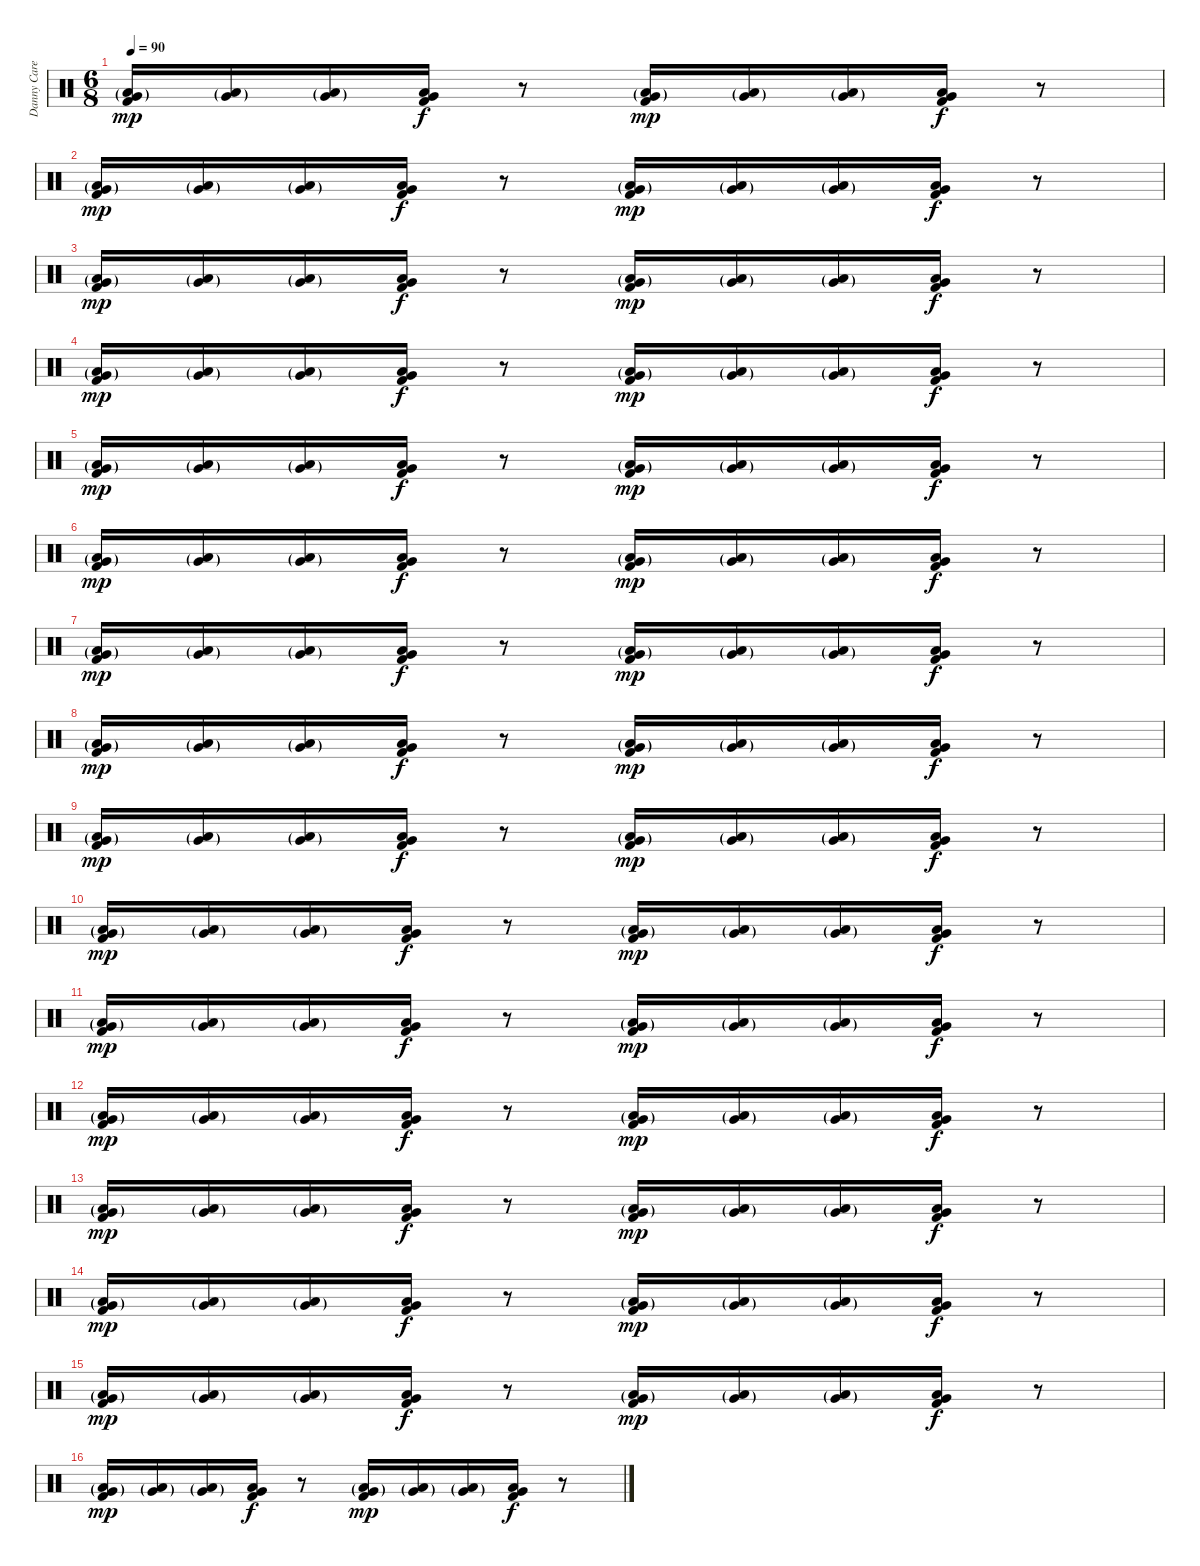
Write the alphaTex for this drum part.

\track ("Danny Carey" "Danny Care") {instrument percussion}
\staff {score}
\articulation defaults
\ts (6 8)
\tempo 90
\clef neutral
\ks c
("Very Low Tom (hit)"{g} "Low Floor Tom (hit)"{g} "Kick (hit) 2").16{dy mp volume 7} ("Very Low Tom (hit)"{g} "Low Floor Tom (hit)"{g}).16{volume 10} ("Very Low Tom (hit)"{g} "Low Floor Tom (hit)"{g}).16 ("Very Low Tom (hit)" "Low Floor Tom (hit)" "Kick (hit) 2").16{dy f} r.8 ("Very Low Tom (hit)"{g} "Low Floor Tom (hit)"{g} "Kick (hit) 2").16{dy mp} ("Very Low Tom (hit)"{g} "Low Floor Tom (hit)"{g}).16 ("Very Low Tom (hit)"{g} "Low Floor Tom (hit)"{g}).16 ("Very Low Tom (hit)" "Low Floor Tom (hit)" "Kick (hit) 2").16{dy f} r.8 |
("Very Low Tom (hit)"{g} "Low Floor Tom (hit)"{g} "Kick (hit) 2").16{dy mp} ("Very Low Tom (hit)"{g} "Low Floor Tom (hit)"{g}).16 ("Very Low Tom (hit)"{g} "Low Floor Tom (hit)"{g}).16 ("Very Low Tom (hit)" "Low Floor Tom (hit)" "Kick (hit) 2").16{dy f} r.8 ("Very Low Tom (hit)"{g} "Low Floor Tom (hit)"{g} "Kick (hit) 2").16{dy mp} ("Very Low Tom (hit)"{g} "Low Floor Tom (hit)"{g}).16 ("Very Low Tom (hit)"{g} "Low Floor Tom (hit)"{g}).16 ("Very Low Tom (hit)" "Low Floor Tom (hit)" "Kick (hit) 2").16{dy f} r.8 |
("Very Low Tom (hit)"{g} "Low Floor Tom (hit)"{g} "Kick (hit) 2").16{dy mp} ("Very Low Tom (hit)"{g} "Low Floor Tom (hit)"{g}).16 ("Very Low Tom (hit)"{g} "Low Floor Tom (hit)"{g}).16 ("Very Low Tom (hit)" "Low Floor Tom (hit)" "Kick (hit) 2").16{dy f} r.8 ("Very Low Tom (hit)"{g} "Low Floor Tom (hit)"{g} "Kick (hit) 2").16{dy mp} ("Very Low Tom (hit)"{g} "Low Floor Tom (hit)"{g}).16 ("Very Low Tom (hit)"{g} "Low Floor Tom (hit)"{g}).16 ("Very Low Tom (hit)" "Low Floor Tom (hit)" "Kick (hit) 2").16{dy f} r.8 |
("Very Low Tom (hit)"{g} "Low Floor Tom (hit)"{g} "Kick (hit) 2").16{dy mp} ("Very Low Tom (hit)"{g} "Low Floor Tom (hit)"{g}).16 ("Very Low Tom (hit)"{g} "Low Floor Tom (hit)"{g}).16 ("Very Low Tom (hit)" "Low Floor Tom (hit)" "Kick (hit) 2").16{dy f} r.8 ("Very Low Tom (hit)"{g} "Low Floor Tom (hit)"{g} "Kick (hit) 2").16{dy mp} ("Very Low Tom (hit)"{g} "Low Floor Tom (hit)"{g}).16 ("Very Low Tom (hit)"{g} "Low Floor Tom (hit)"{g}).16 ("Very Low Tom (hit)" "Low Floor Tom (hit)" "Kick (hit) 2").16{dy f} r.8 |
("Very Low Tom (hit)"{g} "Low Floor Tom (hit)"{g} "Kick (hit) 2").16{dy mp volume 10} ("Very Low Tom (hit)"{g} "Low Floor Tom (hit)"{g}).16{volume 10} ("Very Low Tom (hit)"{g} "Low Floor Tom (hit)"{g}).16 ("Very Low Tom (hit)" "Low Floor Tom (hit)" "Kick (hit) 2").16{dy f} r.8 ("Very Low Tom (hit)"{g} "Low Floor Tom (hit)"{g} "Kick (hit) 2").16{dy mp} ("Very Low Tom (hit)"{g} "Low Floor Tom (hit)"{g}).16 ("Very Low Tom (hit)"{g} "Low Floor Tom (hit)"{g}).16 ("Very Low Tom (hit)" "Low Floor Tom (hit)" "Kick (hit) 2").16{dy f} r.8 |
("Very Low Tom (hit)"{g} "Low Floor Tom (hit)"{g} "Kick (hit) 2").16{dy mp} ("Very Low Tom (hit)"{g} "Low Floor Tom (hit)"{g}).16 ("Very Low Tom (hit)"{g} "Low Floor Tom (hit)"{g}).16 ("Very Low Tom (hit)" "Low Floor Tom (hit)" "Kick (hit) 2").16{dy f} r.8 ("Very Low Tom (hit)"{g} "Low Floor Tom (hit)"{g} "Kick (hit) 2").16{dy mp} ("Very Low Tom (hit)"{g} "Low Floor Tom (hit)"{g}).16 ("Very Low Tom (hit)"{g} "Low Floor Tom (hit)"{g}).16 ("Very Low Tom (hit)" "Low Floor Tom (hit)" "Kick (hit) 2").16{dy f} r.8 |
("Very Low Tom (hit)"{g} "Low Floor Tom (hit)"{g} "Kick (hit) 2").16{dy mp} ("Very Low Tom (hit)"{g} "Low Floor Tom (hit)"{g}).16 ("Very Low Tom (hit)"{g} "Low Floor Tom (hit)"{g}).16 ("Very Low Tom (hit)" "Low Floor Tom (hit)" "Kick (hit) 2").16{dy f} r.8 ("Very Low Tom (hit)"{g} "Low Floor Tom (hit)"{g} "Kick (hit) 2").16{dy mp} ("Very Low Tom (hit)"{g} "Low Floor Tom (hit)"{g}).16 ("Very Low Tom (hit)"{g} "Low Floor Tom (hit)"{g}).16 ("Very Low Tom (hit)" "Low Floor Tom (hit)" "Kick (hit) 2").16{dy f} r.8 |
("Very Low Tom (hit)"{g} "Low Floor Tom (hit)"{g} "Kick (hit) 2").16{dy mp} ("Very Low Tom (hit)"{g} "Low Floor Tom (hit)"{g}).16 ("Very Low Tom (hit)"{g} "Low Floor Tom (hit)"{g}).16 ("Very Low Tom (hit)" "Low Floor Tom (hit)" "Kick (hit) 2").16{dy f} r.8 ("Very Low Tom (hit)"{g} "Low Floor Tom (hit)"{g} "Kick (hit) 2").16{dy mp} ("Very Low Tom (hit)"{g} "Low Floor Tom (hit)"{g}).16 ("Very Low Tom (hit)"{g} "Low Floor Tom (hit)"{g}).16 ("Very Low Tom (hit)" "Low Floor Tom (hit)" "Kick (hit) 2").16{dy f} r.8 |
("Very Low Tom (hit)"{g} "Low Floor Tom (hit)"{g} "Kick (hit) 2").16{dy mp} ("Very Low Tom (hit)"{g} "Low Floor Tom (hit)"{g}).16 ("Very Low Tom (hit)"{g} "Low Floor Tom (hit)"{g}).16 ("Very Low Tom (hit)" "Low Floor Tom (hit)" "Kick (hit) 2").16{dy f} r.8 ("Very Low Tom (hit)"{g} "Low Floor Tom (hit)"{g} "Kick (hit) 2").16{dy mp} ("Very Low Tom (hit)"{g} "Low Floor Tom (hit)"{g}).16 ("Very Low Tom (hit)"{g} "Low Floor Tom (hit)"{g}).16 ("Very Low Tom (hit)" "Low Floor Tom (hit)" "Kick (hit) 2").16{dy f} r.8 |
("Very Low Tom (hit)"{g} "Low Floor Tom (hit)"{g} "Kick (hit) 2").16{dy mp} ("Very Low Tom (hit)"{g} "Low Floor Tom (hit)"{g}).16 ("Very Low Tom (hit)"{g} "Low Floor Tom (hit)"{g}).16 ("Very Low Tom (hit)" "Low Floor Tom (hit)" "Kick (hit) 2").16{dy f} r.8 ("Very Low Tom (hit)"{g} "Low Floor Tom (hit)"{g} "Kick (hit) 2").16{dy mp} ("Very Low Tom (hit)"{g} "Low Floor Tom (hit)"{g}).16 ("Very Low Tom (hit)"{g} "Low Floor Tom (hit)"{g}).16 ("Very Low Tom (hit)" "Low Floor Tom (hit)" "Kick (hit) 2").16{dy f} r.8 |
("Very Low Tom (hit)"{g} "Low Floor Tom (hit)"{g} "Kick (hit) 2").16{dy mp} ("Very Low Tom (hit)"{g} "Low Floor Tom (hit)"{g}).16 ("Very Low Tom (hit)"{g} "Low Floor Tom (hit)"{g}).16 ("Very Low Tom (hit)" "Low Floor Tom (hit)" "Kick (hit) 2").16{dy f} r.8 ("Very Low Tom (hit)"{g} "Low Floor Tom (hit)"{g} "Kick (hit) 2").16{dy mp} ("Very Low Tom (hit)"{g} "Low Floor Tom (hit)"{g}).16 ("Very Low Tom (hit)"{g} "Low Floor Tom (hit)"{g}).16 ("Very Low Tom (hit)" "Low Floor Tom (hit)" "Kick (hit) 2").16{dy f} r.8 |
("Very Low Tom (hit)"{g} "Low Floor Tom (hit)"{g} "Kick (hit) 2").16{dy mp} ("Very Low Tom (hit)"{g} "Low Floor Tom (hit)"{g}).16 ("Very Low Tom (hit)"{g} "Low Floor Tom (hit)"{g}).16 ("Very Low Tom (hit)" "Low Floor Tom (hit)" "Kick (hit) 2").16{dy f} r.8 ("Very Low Tom (hit)"{g} "Low Floor Tom (hit)"{g} "Kick (hit) 2").16{dy mp} ("Very Low Tom (hit)"{g} "Low Floor Tom (hit)"{g}).16 ("Very Low Tom (hit)"{g} "Low Floor Tom (hit)"{g}).16 ("Very Low Tom (hit)" "Low Floor Tom (hit)" "Kick (hit) 2").16{dy f} r.8 |
("Very Low Tom (hit)"{g} "Low Floor Tom (hit)"{g} "Kick (hit) 2").16{dy mp volume 10} ("Very Low Tom (hit)"{g} "Low Floor Tom (hit)"{g}).16{volume 12} ("Very Low Tom (hit)"{g} "Low Floor Tom (hit)"{g}).16 ("Very Low Tom (hit)" "Low Floor Tom (hit)" "Kick (hit) 2").16{dy f} r.8 ("Very Low Tom (hit)"{g} "Low Floor Tom (hit)"{g} "Kick (hit) 2").16{dy mp} ("Very Low Tom (hit)"{g} "Low Floor Tom (hit)"{g}).16 ("Very Low Tom (hit)"{g} "Low Floor Tom (hit)"{g}).16 ("Very Low Tom (hit)" "Low Floor Tom (hit)" "Kick (hit) 2").16{dy f} r.8 |
("Very Low Tom (hit)"{g} "Low Floor Tom (hit)"{g} "Kick (hit) 2").16{dy mp} ("Very Low Tom (hit)"{g} "Low Floor Tom (hit)"{g}).16 ("Very Low Tom (hit)"{g} "Low Floor Tom (hit)"{g}).16 ("Very Low Tom (hit)" "Low Floor Tom (hit)" "Kick (hit) 2").16{dy f} r.8 ("Very Low Tom (hit)"{g} "Low Floor Tom (hit)"{g} "Kick (hit) 2").16{dy mp} ("Very Low Tom (hit)"{g} "Low Floor Tom (hit)"{g}).16 ("Very Low Tom (hit)"{g} "Low Floor Tom (hit)"{g}).16 ("Very Low Tom (hit)" "Low Floor Tom (hit)" "Kick (hit) 2").16{dy f} r.8 |
("Very Low Tom (hit)"{g} "Low Floor Tom (hit)"{g} "Kick (hit) 2").16{dy mp} ("Very Low Tom (hit)"{g} "Low Floor Tom (hit)"{g}).16 ("Very Low Tom (hit)"{g} "Low Floor Tom (hit)"{g}).16 ("Very Low Tom (hit)" "Low Floor Tom (hit)" "Kick (hit) 2").16{dy f} r.8 ("Very Low Tom (hit)"{g} "Low Floor Tom (hit)"{g} "Kick (hit) 2").16{dy mp} ("Very Low Tom (hit)"{g} "Low Floor Tom (hit)"{g}).16 ("Very Low Tom (hit)"{g} "Low Floor Tom (hit)"{g}).16 ("Very Low Tom (hit)" "Low Floor Tom (hit)" "Kick (hit) 2").16{dy f} r.8 |
("Very Low Tom (hit)"{g} "Low Floor Tom (hit)"{g} "Kick (hit) 2").16{dy mp} ("Very Low Tom (hit)"{g} "Low Floor Tom (hit)"{g}).16 ("Very Low Tom (hit)"{g} "Low Floor Tom (hit)"{g}).16 ("Very Low Tom (hit)" "Low Floor Tom (hit)" "Kick (hit) 2").16{dy f} r.8 ("Very Low Tom (hit)"{g} "Low Floor Tom (hit)"{g} "Kick (hit) 2").16{dy mp} ("Very Low Tom (hit)"{g} "Low Floor Tom (hit)"{g}).16 ("Very Low Tom (hit)"{g} "Low Floor Tom (hit)"{g}).16 ("Very Low Tom (hit)" "Low Floor Tom (hit)" "Kick (hit) 2").16{dy f} r.8
